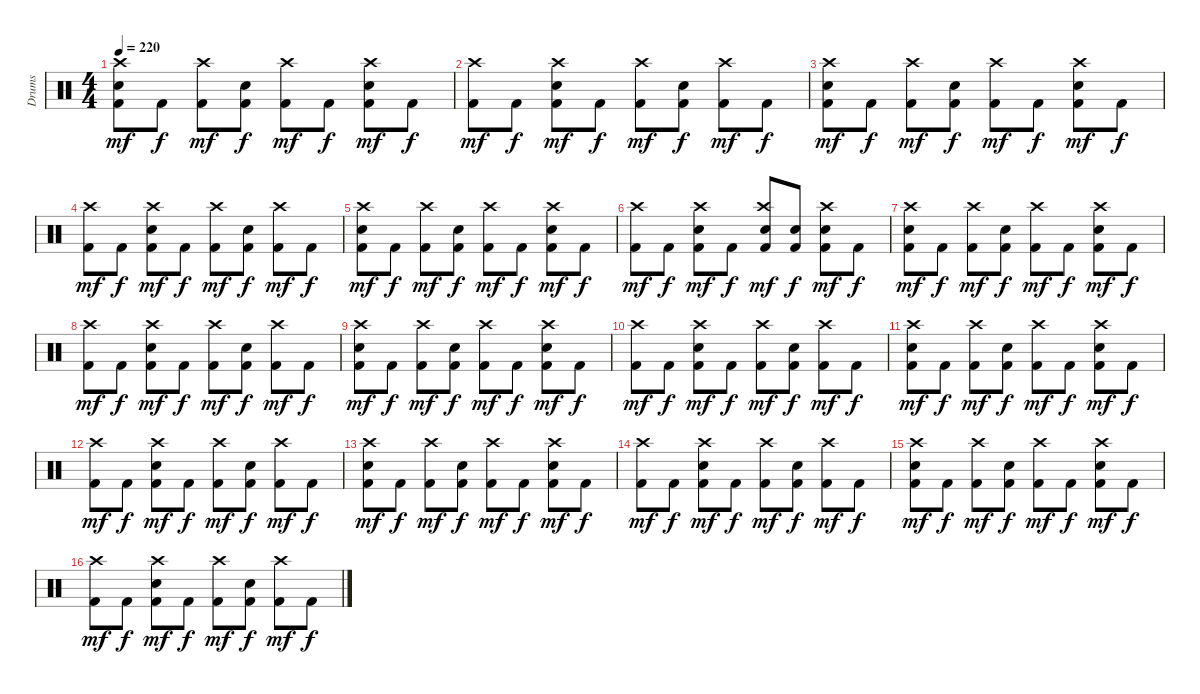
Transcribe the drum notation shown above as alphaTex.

\bracketExtendMode groupsimilarinstruments
\otherSystemsTrackNameOrientation horizontal
\track ("Drumkit" "Drums") {instrument percussion}
\staff {score}
\articulation defaults
\ts (4 4)
\tempo 220
\clef neutral
\ks c
("Crash high (hit)" "Snare (hit) 2" "Kick (hit) 2").8{dy mf beam Down} "Kick (hit) 2".8{dy f beam Down} ("Crash high (hit)" "Kick (hit) 2").8{dy mf beam Down} ("Snare (hit) 2" "Kick (hit) 2").8{dy f beam Down} ("Crash high (hit)" "Kick (hit) 2").8{dy mf beam Down} "Kick (hit) 2".8{dy f beam Down} ("Crash high (hit)" "Snare (hit) 2" "Kick (hit) 2").8{dy mf beam Down} "Kick (hit) 2".8{dy f beam Down} |
("Crash high (hit)" "Kick (hit) 2").8{dy mf beam Down} "Kick (hit) 2".8{dy f beam Down} ("Crash high (hit)" "Snare (hit) 2" "Kick (hit) 2").8{dy mf beam Down} "Kick (hit) 2".8{dy f beam Down} ("Crash high (hit)" "Kick (hit) 2").8{dy mf beam Down} ("Snare (hit) 2" "Kick (hit) 2").8{dy f beam Down} ("Crash high (hit)" "Kick (hit) 2").8{dy mf beam Down} "Kick (hit) 2".8{dy f beam Down} |
("Crash high (hit)" "Snare (hit) 2" "Kick (hit) 2").8{dy mf beam Down} "Kick (hit) 2".8{dy f beam Down} ("Crash high (hit)" "Kick (hit) 2").8{dy mf beam Down} ("Snare (hit) 2" "Kick (hit) 2").8{dy f beam Down} ("Crash high (hit)" "Kick (hit) 2").8{dy mf beam Down} "Kick (hit) 2".8{dy f beam Down} ("Crash high (hit)" "Snare (hit) 2" "Kick (hit) 2").8{dy mf beam Down} "Kick (hit) 2".8{dy f beam Down} |
("Crash high (hit)" "Kick (hit) 2").8{dy mf beam Down} "Kick (hit) 2".8{dy f beam Down} ("Crash high (hit)" "Snare (hit) 2" "Kick (hit) 2").8{dy mf beam Down} "Kick (hit) 2".8{dy f beam Down} ("Crash high (hit)" "Kick (hit) 2").8{dy mf beam Down} ("Snare (hit) 2" "Kick (hit) 2").8{dy f beam Down} ("Crash high (hit)" "Kick (hit) 2").8{dy mf beam Down} "Kick (hit) 2".8{dy f beam Down} |
("Crash high (hit)" "Snare (hit) 2" "Kick (hit) 2").8{dy mf beam Down} "Kick (hit) 2".8{dy f beam Down} ("Crash high (hit)" "Kick (hit) 2").8{dy mf beam Down} ("Snare (hit) 2" "Kick (hit) 2").8{dy f beam Down} ("Crash high (hit)" "Kick (hit) 2").8{dy mf beam Down} "Kick (hit) 2".8{dy f beam Down} ("Crash high (hit)" "Snare (hit) 2" "Kick (hit) 2").8{dy mf beam Down} "Kick (hit) 2".8{dy f beam Down} |
("Crash high (hit)" "Kick (hit) 2").8{dy mf beam Down} "Kick (hit) 2".8{dy f beam Down} ("Crash high (hit)" "Snare (hit) 2" "Kick (hit) 2").8{dy mf beam Down} "Kick (hit) 2".8{dy f beam Down} ("Crash high (hit)" "Snare (hit) 2" "Kick (hit) 2").8{dy mf beam Up} ("Snare (hit) 2" "Kick (hit) 2").8{dy f beam Up} ("Crash high (hit)" "Snare (hit) 2" "Kick (hit) 2").8{dy mf beam Down} "Kick (hit) 2".8{dy f beam Down} |
("Crash high (hit)" "Snare (hit) 2" "Kick (hit) 2").8{dy mf beam Down} "Kick (hit) 2".8{dy f beam Down} ("Crash high (hit)" "Kick (hit) 2").8{dy mf beam Down} ("Snare (hit) 2" "Kick (hit) 2").8{dy f beam Down} ("Crash high (hit)" "Kick (hit) 2").8{dy mf beam Down} "Kick (hit) 2".8{dy f beam Down} ("Crash high (hit)" "Snare (hit) 2" "Kick (hit) 2").8{dy mf beam Down} "Kick (hit) 2".8{dy f beam Down} |
("Crash high (hit)" "Kick (hit) 2").8{dy mf beam Down} "Kick (hit) 2".8{dy f beam Down} ("Crash high (hit)" "Snare (hit) 2" "Kick (hit) 2").8{dy mf beam Down} "Kick (hit) 2".8{dy f beam Down} ("Crash high (hit)" "Kick (hit) 2").8{dy mf beam Down} ("Snare (hit) 2" "Kick (hit) 2").8{dy f beam Down} ("Crash high (hit)" "Kick (hit) 2").8{dy mf beam Down} "Kick (hit) 2".8{dy f beam Down} |
("Crash high (hit)" "Snare (hit) 2" "Kick (hit) 2").8{dy mf beam Down} "Kick (hit) 2".8{dy f beam Down} ("Crash high (hit)" "Kick (hit) 2").8{dy mf beam Down} ("Snare (hit) 2" "Kick (hit) 2").8{dy f beam Down} ("Crash high (hit)" "Kick (hit) 2").8{dy mf beam Down} "Kick (hit) 2".8{dy f beam Down} ("Crash high (hit)" "Snare (hit) 2" "Kick (hit) 2").8{dy mf beam Down} "Kick (hit) 2".8{dy f beam Down} |
("Crash high (hit)" "Kick (hit) 2").8{dy mf beam Down} "Kick (hit) 2".8{dy f beam Down} ("Crash high (hit)" "Snare (hit) 2" "Kick (hit) 2").8{dy mf beam Down} "Kick (hit) 2".8{dy f beam Down} ("Crash high (hit)" "Kick (hit) 2").8{dy mf beam Down} ("Snare (hit) 2" "Kick (hit) 2").8{dy f beam Down} ("Crash high (hit)" "Kick (hit) 2").8{dy mf beam Down} "Kick (hit) 2".8{dy f beam Down} |
("Crash high (hit)" "Snare (hit) 2" "Kick (hit) 2").8{dy mf beam Down} "Kick (hit) 2".8{dy f beam Down} ("Crash high (hit)" "Kick (hit) 2").8{dy mf beam Down} ("Snare (hit) 2" "Kick (hit) 2").8{dy f beam Down} ("Crash high (hit)" "Kick (hit) 2").8{dy mf beam Down} "Kick (hit) 2".8{dy f beam Down} ("Crash high (hit)" "Snare (hit) 2" "Kick (hit) 2").8{dy mf beam Down} "Kick (hit) 2".8{dy f beam Down} |
("Crash high (hit)" "Kick (hit) 2").8{dy mf beam Down} "Kick (hit) 2".8{dy f beam Down} ("Crash high (hit)" "Snare (hit) 2" "Kick (hit) 2").8{dy mf beam Down} "Kick (hit) 2".8{dy f beam Down} ("Crash high (hit)" "Kick (hit) 2").8{dy mf beam Down} ("Snare (hit) 2" "Kick (hit) 2").8{dy f beam Down} ("Crash high (hit)" "Kick (hit) 2").8{dy mf beam Down} "Kick (hit) 2".8{dy f beam Down} |
("Crash high (hit)" "Snare (hit) 2" "Kick (hit) 2").8{dy mf beam Down} "Kick (hit) 2".8{dy f beam Down} ("Crash high (hit)" "Kick (hit) 2").8{dy mf beam Down} ("Snare (hit) 2" "Kick (hit) 2").8{dy f beam Down} ("Crash high (hit)" "Kick (hit) 2").8{dy mf beam Down} "Kick (hit) 2".8{dy f beam Down} ("Crash high (hit)" "Snare (hit) 2" "Kick (hit) 2").8{dy mf beam Down} "Kick (hit) 2".8{dy f beam Down} |
("Crash high (hit)" "Kick (hit) 2").8{dy mf beam Down} "Kick (hit) 2".8{dy f beam Down} ("Crash high (hit)" "Snare (hit) 2" "Kick (hit) 2").8{dy mf beam Down} "Kick (hit) 2".8{dy f beam Down} ("Crash high (hit)" "Kick (hit) 2").8{dy mf beam Down} ("Snare (hit) 2" "Kick (hit) 2").8{dy f beam Down} ("Crash high (hit)" "Kick (hit) 2").8{dy mf beam Down} "Kick (hit) 2".8{dy f beam Down} |
("Crash high (hit)" "Snare (hit) 2" "Kick (hit) 2").8{dy mf beam Down} "Kick (hit) 2".8{dy f beam Down} ("Crash high (hit)" "Kick (hit) 2").8{dy mf beam Down} ("Snare (hit) 2" "Kick (hit) 2").8{dy f beam Down} ("Crash high (hit)" "Kick (hit) 2").8{dy mf beam Down} "Kick (hit) 2".8{dy f beam Down} ("Crash high (hit)" "Snare (hit) 2" "Kick (hit) 2").8{dy mf beam Down} "Kick (hit) 2".8{dy f beam Down} |
("Crash high (hit)" "Kick (hit) 2").8{dy mf beam Down} "Kick (hit) 2".8{dy f beam Down} ("Crash high (hit)" "Snare (hit) 2" "Kick (hit) 2").8{dy mf beam Down} "Kick (hit) 2".8{dy f beam Down} ("Crash high (hit)" "Kick (hit) 2").8{dy mf beam Down} ("Snare (hit) 2" "Kick (hit) 2").8{dy f beam Down} ("Crash high (hit)" "Kick (hit) 2").8{dy mf beam Down} "Kick (hit) 2".8{dy f beam Down}
